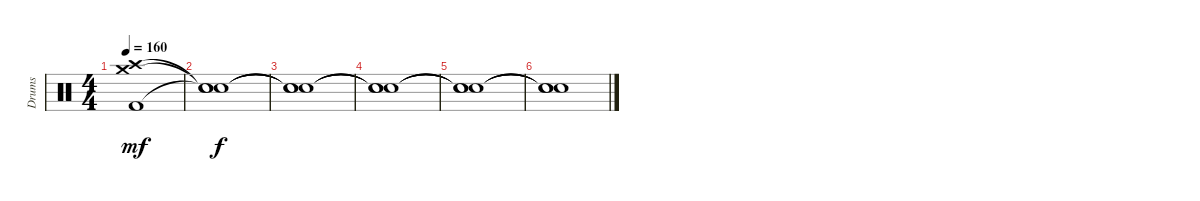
\track ("Drums" "Drums") {instrument percussion}
\staff {score}
\articulation defaults
\ts (4 4)
\tempo 160
\clef neutral
\ks c
("Crash high (hit)" "Crash medium (hit)" "Kick (hit) 2").1{dy mf} |
("Snare (hit)"{t} "Snare (hit)"{t} "Snare (hit)"{t}).1{dy f} |
("Snare (hit)"{t} "Snare (hit)"{t} "Snare (hit)"{t}).1 |
("Snare (hit)"{t} "Snare (hit)"{t} "Snare (hit)"{t}).1 |
("Snare (hit)"{t} "Snare (hit)"{t} "Snare (hit)"{t}).1 |
("Snare (hit)"{t} "Snare (hit)"{t} "Snare (hit)"{t}).1
